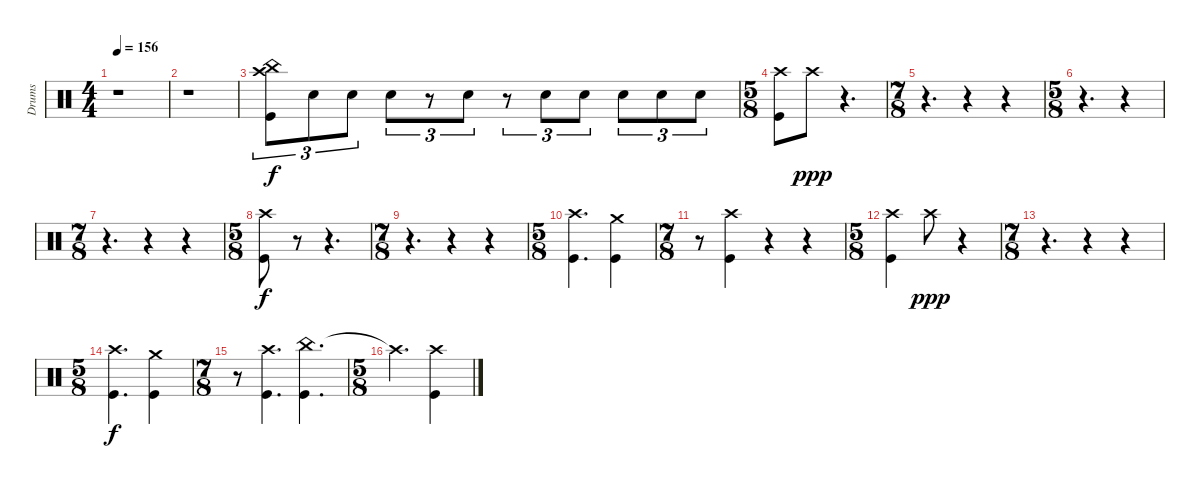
\track ("Drums" "Drums") {instrument percussion}
\staff {score}
\articulation defaults
\ts (4 4)
\tempo 156
\clef neutral
\ks c
r.1{dy f} |
r.1 |
("Crash high (hit)" "China (hit)" "Kick (hit)").8{tu (3 2)} "Electric Snare (hit)".8{tu (3 2)} "Electric Snare (hit)".8{tu (3 2)} "Electric Snare (hit)".8{tu (3 2)} r.8{tu (3 2)} "Electric Snare (hit)".8{tu (3 2)} r.8{tu (3 2)} "Electric Snare (hit)".8{tu (3 2)} "Electric Snare (hit)".8{tu (3 2)} "Electric Snare (hit)".8{tu (3 2)} "Electric Snare (hit)".8{tu (3 2)} "Electric Snare (hit)".8{tu (3 2)} |
\ts (5 8)
("Crash high (hit)" "Kick (hit)").8 "Crash high (hit)".8{dy ppp} r.4{d} |
\ts (7 8)
r.4{d} r.4 r.4 |
\ts (5 8)
r.4{d} r.4 |
\ts (7 8)
r.4{d} r.4 r.4 |
\ts (5 8)
("Crash high (hit)" "Kick (hit)").8{dy f} r.8 r.4{d} |
\ts (7 8)
r.4{d} r.4 r.4 |
\ts (5 8)
("Crash high (hit)" "Kick (hit)").4{d} ("Crash medium (hit)" "Kick (hit)").4 |
\ts (7 8)
r.8 ("Crash high (hit)" "Kick (hit)").4 r.4 r.4 |
\ts (5 8)
("Crash high (hit)" "Kick (hit)").4 "Crash high (hit)".8{dy ppp} r.4 |
\ts (7 8)
r.4{d} r.4 r.4 |
\ts (5 8)
("Crash high (hit)" "Kick (hit)").4{d dy f} ("Crash medium (hit)" "Kick (hit)").4 |
\ts (7 8)
r.8 ("Crash high (hit)" "Kick (hit)").4{d} ("China (hit)" "Kick (hit)").4{d} |
\ts (5 8)
"Crash high (hit)"{t}.4{d} ("Crash high (hit)" "Kick (hit)").4
